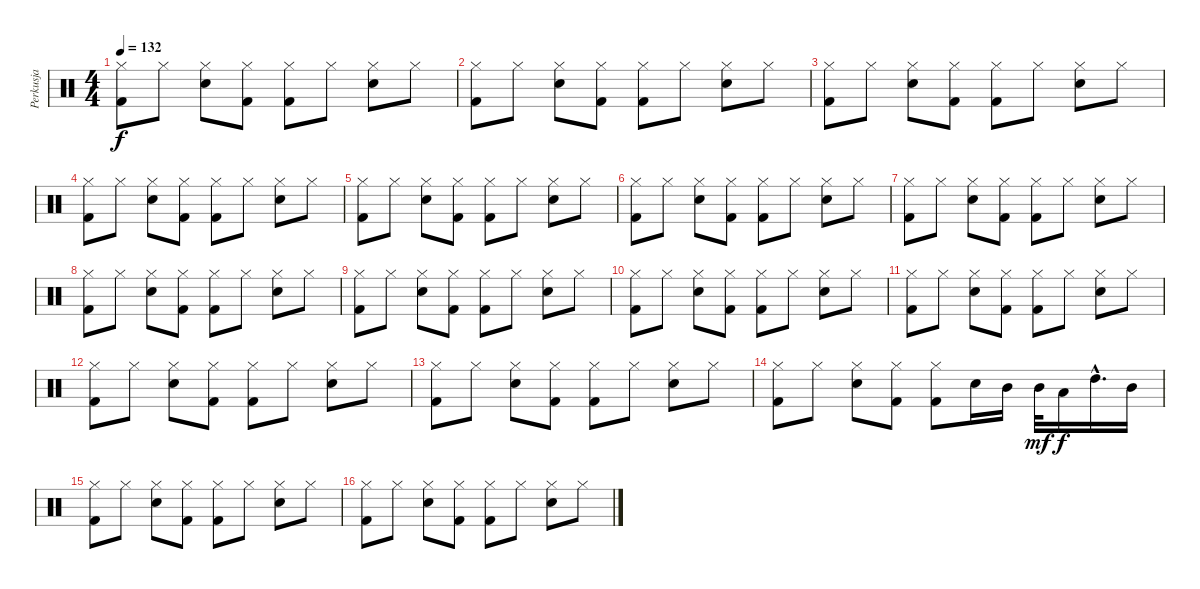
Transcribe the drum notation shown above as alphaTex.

\track ("Perkusja" "Perkusja") {instrument percussion}
\staff {score}
\articulation defaults
\ts (4 4)
\tempo 132
\clef neutral
\ks c
("Kick (hit) 2" "Hi-Hat (closed)").8{dy f} "Hi-Hat (closed)".8 ("Snare (hit) 2" "Hi-Hat (closed)").8 ("Kick (hit) 2" "Hi-Hat (closed)").8 ("Kick (hit) 2" "Hi-Hat (closed)").8 "Hi-Hat (closed)".8 ("Snare (hit) 2" "Hi-Hat (closed)").8 "Hi-Hat (closed)".8 |
("Kick (hit) 2" "Hi-Hat (closed)").8 "Hi-Hat (closed)".8 ("Snare (hit) 2" "Hi-Hat (closed)").8 ("Kick (hit) 2" "Hi-Hat (closed)").8 ("Kick (hit) 2" "Hi-Hat (closed)").8 "Hi-Hat (closed)".8 ("Snare (hit) 2" "Hi-Hat (closed)").8 "Hi-Hat (closed)".8 |
("Kick (hit) 2" "Hi-Hat (closed)").8 "Hi-Hat (closed)".8 ("Snare (hit) 2" "Hi-Hat (closed)").8 ("Kick (hit) 2" "Hi-Hat (closed)").8 ("Kick (hit) 2" "Hi-Hat (closed)").8 "Hi-Hat (closed)".8 ("Snare (hit) 2" "Hi-Hat (closed)").8 "Hi-Hat (closed)".8 |
("Kick (hit) 2" "Hi-Hat (closed)").8 "Hi-Hat (closed)".8 ("Snare (hit) 2" "Hi-Hat (closed)").8 ("Kick (hit) 2" "Hi-Hat (closed)").8 ("Kick (hit) 2" "Hi-Hat (closed)").8 "Hi-Hat (closed)".8 ("Snare (hit) 2" "Hi-Hat (closed)").8 "Hi-Hat (closed)".8 |
("Kick (hit) 2" "Hi-Hat (closed)").8 "Hi-Hat (closed)".8 ("Snare (hit) 2" "Hi-Hat (closed)").8 ("Kick (hit) 2" "Hi-Hat (closed)").8 ("Kick (hit) 2" "Hi-Hat (closed)").8 "Hi-Hat (closed)".8 ("Snare (hit) 2" "Hi-Hat (closed)").8 "Hi-Hat (closed)".8 |
("Kick (hit) 2" "Hi-Hat (closed)").8 "Hi-Hat (closed)".8 ("Snare (hit) 2" "Hi-Hat (closed)").8 ("Kick (hit) 2" "Hi-Hat (closed)").8 ("Kick (hit) 2" "Hi-Hat (closed)").8 "Hi-Hat (closed)".8 ("Snare (hit) 2" "Hi-Hat (closed)").8 "Hi-Hat (closed)".8 |
("Kick (hit) 2" "Hi-Hat (closed)").8 "Hi-Hat (closed)".8 ("Snare (hit) 2" "Hi-Hat (closed)").8 ("Kick (hit) 2" "Hi-Hat (closed)").8 ("Kick (hit) 2" "Hi-Hat (closed)").8 "Hi-Hat (closed)".8 ("Snare (hit) 2" "Hi-Hat (closed)").8 "Hi-Hat (closed)".8 |
("Kick (hit) 2" "Hi-Hat (closed)").8 "Hi-Hat (closed)".8 ("Snare (hit) 2" "Hi-Hat (closed)").8 ("Kick (hit) 2" "Hi-Hat (closed)").8 ("Kick (hit) 2" "Hi-Hat (closed)").8 "Hi-Hat (closed)".8 ("Snare (hit) 2" "Hi-Hat (closed)").8 "Hi-Hat (closed)".8 |
("Kick (hit) 2" "Hi-Hat (closed)").8 "Hi-Hat (closed)".8 ("Snare (hit) 2" "Hi-Hat (closed)").8 ("Kick (hit) 2" "Hi-Hat (closed)").8 ("Kick (hit) 2" "Hi-Hat (closed)").8 "Hi-Hat (closed)".8 ("Snare (hit) 2" "Hi-Hat (closed)").8 "Hi-Hat (closed)".8 |
("Kick (hit) 2" "Hi-Hat (closed)").8 "Hi-Hat (closed)".8 ("Snare (hit) 2" "Hi-Hat (closed)").8 ("Kick (hit) 2" "Hi-Hat (closed)").8 ("Kick (hit) 2" "Hi-Hat (closed)").8 "Hi-Hat (closed)".8 ("Snare (hit) 2" "Hi-Hat (closed)").8 "Hi-Hat (closed)".8 |
("Kick (hit) 2" "Hi-Hat (closed)").8 "Hi-Hat (closed)".8 ("Snare (hit) 2" "Hi-Hat (closed)").8 ("Kick (hit) 2" "Hi-Hat (closed)").8 ("Kick (hit) 2" "Hi-Hat (closed)").8 "Hi-Hat (closed)".8 ("Snare (hit) 2" "Hi-Hat (closed)").8 "Hi-Hat (closed)".8 |
("Kick (hit) 2" "Hi-Hat (closed)").8 "Hi-Hat (closed)".8 ("Snare (hit) 2" "Hi-Hat (closed)").8 ("Kick (hit) 2" "Hi-Hat (closed)").8 ("Kick (hit) 2" "Hi-Hat (closed)").8 "Hi-Hat (closed)".8 ("Snare (hit) 2" "Hi-Hat (closed)").8 "Hi-Hat (closed)".8 |
("Kick (hit) 2" "Hi-Hat (closed)").8 "Hi-Hat (closed)".8 ("Snare (hit) 2" "Hi-Hat (closed)").8 ("Kick (hit) 2" "Hi-Hat (closed)").8 ("Kick (hit) 2" "Hi-Hat (closed)").8 "Hi-Hat (closed)".8 ("Snare (hit) 2" "Hi-Hat (closed)").8 "Hi-Hat (closed)".8 |
("Kick (hit) 2" "Hi-Hat (closed)").8 "Hi-Hat (closed)".8 ("Snare (hit) 2" "Hi-Hat (closed)").8 ("Kick (hit) 2" "Hi-Hat (closed)").8 ("Kick (hit) 2" "Hi-Hat (closed)").8 "Snare (hit) 2".16 "Mid Tom (hit)".16 "Mid Tom (hit)".32{dy mf} "Low Tom (hit)".16{dy f} "High Tom (hit)"{hac}.16{d} "Mid Tom (hit)".16 |
("Kick (hit) 2" "Hi-Hat (closed)").8 "Hi-Hat (closed)".8 ("Snare (hit) 2" "Hi-Hat (closed)").8 ("Kick (hit) 2" "Hi-Hat (closed)").8 ("Kick (hit) 2" "Hi-Hat (closed)").8 "Hi-Hat (closed)".8 ("Snare (hit) 2" "Hi-Hat (closed)").8 "Hi-Hat (closed)".8 |
("Kick (hit) 2" "Hi-Hat (closed)").8 "Hi-Hat (closed)".8 ("Snare (hit) 2" "Hi-Hat (closed)").8 ("Kick (hit) 2" "Hi-Hat (closed)").8 ("Kick (hit) 2" "Hi-Hat (closed)").8 "Hi-Hat (closed)".8 ("Snare (hit) 2" "Hi-Hat (closed)").8 "Hi-Hat (closed)".8
